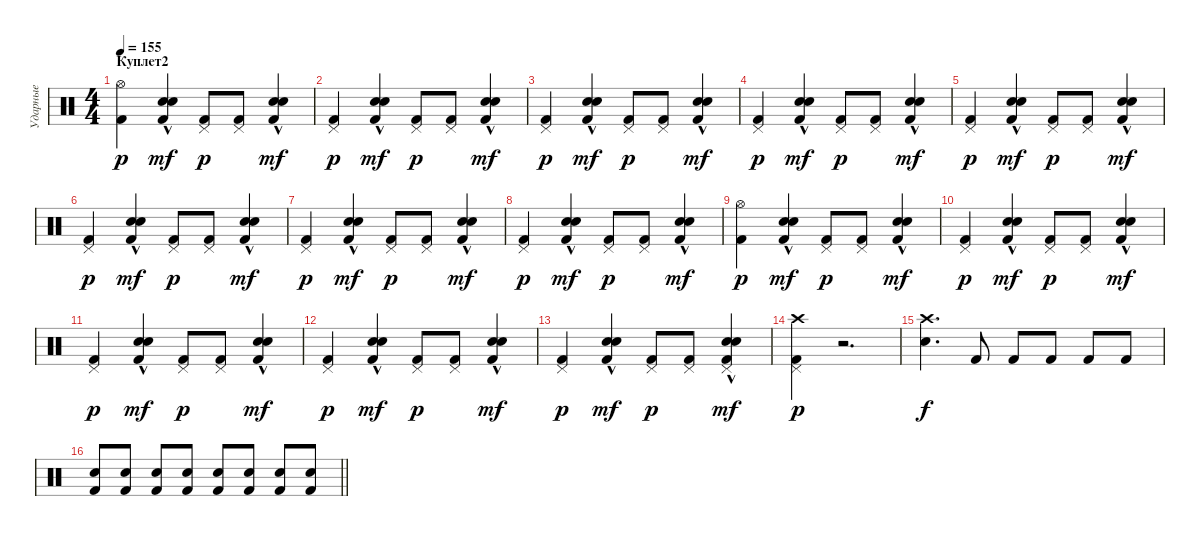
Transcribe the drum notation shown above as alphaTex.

\track ("Ударные" "Ударные") {instrument percussion}
\staff {score}
\articulation defaults
\ts (4 4)
\section ("" "Куплет2")
\tempo 155
\clef neutral
\ks c
("Kick (hit) 2" "Hi-Hat (open)").4{dy p} ("Electric Snare (hit)"{hac} "Kick (hit) 2" "Snare (hit) 2"{hac}).4{dy mf} ("Pedal Hi-Hat (hit)" "Kick (hit) 2").8{dy p} ("Pedal Hi-Hat (hit)" "Kick (hit) 2").8 ("Electric Snare (hit)"{hac} "Kick (hit) 2" "Snare (hit) 2"{hac}).4{dy mf} |
("Pedal Hi-Hat (hit)" "Kick (hit) 2").4{dy p} ("Electric Snare (hit)"{hac} "Kick (hit) 2" "Snare (hit) 2"{hac}).4{dy mf} ("Pedal Hi-Hat (hit)" "Kick (hit) 2").8{dy p} ("Pedal Hi-Hat (hit)" "Kick (hit) 2").8 ("Electric Snare (hit)"{hac} "Kick (hit) 2" "Snare (hit) 2"{hac}).4{dy mf} |
("Pedal Hi-Hat (hit)" "Kick (hit) 2").4{dy p} ("Electric Snare (hit)"{hac} "Kick (hit) 2" "Snare (hit) 2"{hac}).4{dy mf} ("Pedal Hi-Hat (hit)" "Kick (hit) 2").8{dy p} ("Pedal Hi-Hat (hit)" "Kick (hit) 2").8 ("Electric Snare (hit)"{hac} "Kick (hit) 2" "Snare (hit) 2"{hac}).4{dy mf} |
("Pedal Hi-Hat (hit)" "Kick (hit) 2").4{dy p} ("Electric Snare (hit)"{hac} "Kick (hit) 2" "Snare (hit) 2"{hac}).4{dy mf} ("Pedal Hi-Hat (hit)" "Kick (hit) 2").8{dy p} ("Pedal Hi-Hat (hit)" "Kick (hit) 2").8 ("Electric Snare (hit)"{hac} "Kick (hit) 2" "Snare (hit) 2"{hac}).4{dy mf} |
("Kick (hit) 2" "Pedal Hi-Hat (hit)").4{dy p} ("Electric Snare (hit)"{hac} "Kick (hit) 2" "Snare (hit) 2"{hac}).4{dy mf} ("Pedal Hi-Hat (hit)" "Kick (hit) 2").8{dy p} ("Pedal Hi-Hat (hit)" "Kick (hit) 2").8 ("Electric Snare (hit)"{hac} "Kick (hit) 2" "Snare (hit) 2"{hac}).4{dy mf} |
("Pedal Hi-Hat (hit)" "Kick (hit) 2").4{dy p} ("Electric Snare (hit)"{hac} "Kick (hit) 2" "Snare (hit) 2"{hac}).4{dy mf} ("Pedal Hi-Hat (hit)" "Kick (hit) 2").8{dy p} ("Pedal Hi-Hat (hit)" "Kick (hit) 2").8 ("Electric Snare (hit)"{hac} "Kick (hit) 2" "Snare (hit) 2"{hac}).4{dy mf} |
("Pedal Hi-Hat (hit)" "Kick (hit) 2").4{dy p} ("Electric Snare (hit)"{hac} "Kick (hit) 2" "Snare (hit) 2"{hac}).4{dy mf} ("Pedal Hi-Hat (hit)" "Kick (hit) 2").8{dy p} ("Pedal Hi-Hat (hit)" "Kick (hit) 2").8 ("Electric Snare (hit)"{hac} "Kick (hit) 2" "Snare (hit) 2"{hac}).4{dy mf} |
("Pedal Hi-Hat (hit)" "Kick (hit) 2").4{dy p} ("Electric Snare (hit)"{hac} "Kick (hit) 2" "Snare (hit) 2"{hac}).4{dy mf} ("Pedal Hi-Hat (hit)" "Kick (hit) 2").8{dy p} ("Pedal Hi-Hat (hit)" "Kick (hit) 2").8 ("Electric Snare (hit)"{hac} "Kick (hit) 2" "Snare (hit) 2"{hac}).4{dy mf} |
("Kick (hit) 2" "Hi-Hat (open)").4{dy p} ("Electric Snare (hit)"{hac} "Kick (hit) 2" "Snare (hit) 2"{hac}).4{dy mf} ("Pedal Hi-Hat (hit)" "Kick (hit) 2").8{dy p} ("Pedal Hi-Hat (hit)" "Kick (hit) 2").8 ("Electric Snare (hit)"{hac} "Kick (hit) 2" "Snare (hit) 2"{hac}).4{dy mf} |
("Pedal Hi-Hat (hit)" "Kick (hit) 2").4{dy p} ("Electric Snare (hit)"{hac} "Kick (hit) 2" "Snare (hit) 2"{hac}).4{dy mf} ("Pedal Hi-Hat (hit)" "Kick (hit) 2").8{dy p} ("Pedal Hi-Hat (hit)" "Kick (hit) 2").8 ("Electric Snare (hit)"{hac} "Kick (hit) 2" "Snare (hit) 2"{hac}).4{dy mf} |
("Pedal Hi-Hat (hit)" "Kick (hit) 2").4{dy p} ("Electric Snare (hit)"{hac} "Kick (hit) 2" "Snare (hit) 2"{hac}).4{dy mf} ("Pedal Hi-Hat (hit)" "Kick (hit) 2").8{dy p} ("Pedal Hi-Hat (hit)" "Kick (hit) 2").8 ("Electric Snare (hit)"{hac} "Kick (hit) 2" "Snare (hit) 2"{hac}).4{dy mf} |
("Pedal Hi-Hat (hit)" "Kick (hit) 2").4{dy p} ("Electric Snare (hit)"{hac} "Kick (hit) 2" "Snare (hit) 2"{hac}).4{dy mf} ("Pedal Hi-Hat (hit)" "Kick (hit) 2").8{dy p} ("Pedal Hi-Hat (hit)" "Kick (hit) 2").8 ("Electric Snare (hit)"{hac} "Kick (hit) 2" "Snare (hit) 2"{hac}).4{dy mf} |
("Kick (hit) 2" "Pedal Hi-Hat (hit)").4{dy p} ("Electric Snare (hit)"{hac} "Kick (hit) 2" "Snare (hit) 2"{hac}).4{dy mf} ("Pedal Hi-Hat (hit)" "Kick (hit) 2").8{dy p} ("Pedal Hi-Hat (hit)" "Kick (hit) 2").8 ("Electric Snare (hit)"{hac} "Pedal Hi-Hat (hit)" "Kick (hit) 2" "Snare (hit) 2"{hac}).4{dy mf} |
("Pedal Hi-Hat (hit)" "Crash high (hit)" "Kick (hit) 2").4{dy p} r.2{d} |
("Crash high (hit)" "Snare (hit) 2").4{d dy f} "Kick (hit) 2".8 "Kick (hit) 2".8 "Kick (hit) 2".8 "Kick (hit) 2".8 "Kick (hit) 2".8 |
\barLineRight lightlight
("Snare (hit) 2" "Kick (hit) 2").8 ("Snare (hit) 2" "Kick (hit) 2").8 ("Snare (hit) 2" "Kick (hit) 2").8 ("Snare (hit) 2" "Kick (hit) 2").8 ("Snare (hit) 2" "Kick (hit) 2").8 ("Snare (hit) 2" "Kick (hit) 2").8 ("Snare (hit) 2" "Kick (hit) 2").8 ("Snare (hit) 2" "Kick (hit) 2").8
